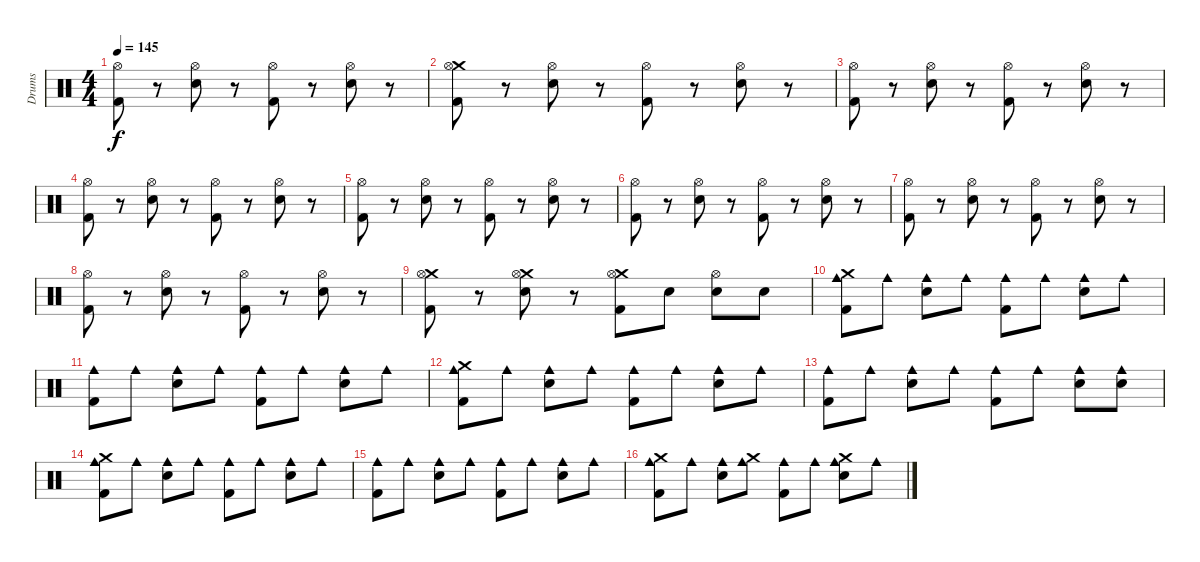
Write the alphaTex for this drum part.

\track ("Drums" "Drums") {instrument percussion}
\staff {score}
\articulation defaults
\ts (4 4)
\tempo 145
\clef neutral
\ks c
("Hi-Hat (open)" "Kick (hit) 2").8{dy f} r.8 ("Hi-Hat (open)" "Electric Snare (hit)").8 r.8 ("Hi-Hat (open)" "Kick (hit) 2").8 r.8 ("Hi-Hat (open)" "Electric Snare (hit)").8 r.8 |
("Crash medium (hit)" "Hi-Hat (open)" "Kick (hit) 2").8 r.8 ("Hi-Hat (open)" "Electric Snare (hit)").8 r.8 ("Hi-Hat (open)" "Kick (hit) 2").8 r.8 ("Hi-Hat (open)" "Electric Snare (hit)").8 r.8 |
("Hi-Hat (open)" "Kick (hit) 2").8 r.8 ("Hi-Hat (open)" "Electric Snare (hit)").8 r.8 ("Hi-Hat (open)" "Kick (hit) 2").8 r.8 ("Hi-Hat (open)" "Electric Snare (hit)").8 r.8 |
("Hi-Hat (open)" "Kick (hit) 2").8 r.8 ("Hi-Hat (open)" "Electric Snare (hit)").8 r.8 ("Hi-Hat (open)" "Kick (hit) 2").8 r.8 ("Hi-Hat (open)" "Electric Snare (hit)").8 r.8 |
("Hi-Hat (open)" "Kick (hit) 2").8 r.8 ("Hi-Hat (open)" "Electric Snare (hit)").8 r.8 ("Hi-Hat (open)" "Kick (hit) 2").8 r.8 ("Hi-Hat (open)" "Electric Snare (hit)").8 r.8 |
("Hi-Hat (open)" "Kick (hit) 2").8 r.8 ("Hi-Hat (open)" "Electric Snare (hit)").8 r.8 ("Hi-Hat (open)" "Kick (hit) 2").8 r.8 ("Hi-Hat (open)" "Electric Snare (hit)").8 r.8 |
("Hi-Hat (open)" "Kick (hit) 2").8 r.8 ("Hi-Hat (open)" "Electric Snare (hit)").8 r.8 ("Hi-Hat (open)" "Kick (hit) 2").8 r.8 ("Hi-Hat (open)" "Electric Snare (hit)").8 r.8 |
("Hi-Hat (open)" "Kick (hit) 2").8 r.8 ("Hi-Hat (open)" "Electric Snare (hit)").8 r.8 ("Hi-Hat (open)" "Kick (hit) 2").8 r.8 ("Hi-Hat (open)" "Electric Snare (hit)").8 r.8 |
("Crash medium (hit)" "Hi-Hat (open)" "Kick (hit) 2").8 r.8 ("Crash medium (hit)" "Hi-Hat (open)" "Electric Snare (hit)").8 r.8 ("Crash medium (hit)" "Hi-Hat (open)" "Kick (hit) 2").8 "Electric Snare (hit)".8 ("Hi-Hat (open)" "Electric Snare (hit)").8 "Electric Snare (hit)".8 |
("Crash medium (hit)" "Cowbell medium (hit)" "Kick (hit) 2").8 "Cowbell medium (hit)".8 ("Cowbell medium (hit)" "Electric Snare (hit)").8 "Cowbell medium (hit)".8 ("Cowbell medium (hit)" "Kick (hit) 2").8 "Cowbell medium (hit)".8 ("Cowbell medium (hit)" "Electric Snare (hit)").8 "Cowbell medium (hit)".8 |
("Cowbell medium (hit)" "Kick (hit) 2").8 "Cowbell medium (hit)".8 ("Cowbell medium (hit)" "Electric Snare (hit)").8 "Cowbell medium (hit)".8 ("Cowbell medium (hit)" "Kick (hit) 2").8 "Cowbell medium (hit)".8 ("Cowbell medium (hit)" "Electric Snare (hit)").8 "Cowbell medium (hit)".8 |
("Crash medium (hit)" "Cowbell medium (hit)" "Kick (hit) 2").8 "Cowbell medium (hit)".8 ("Cowbell medium (hit)" "Electric Snare (hit)").8 "Cowbell medium (hit)".8 ("Cowbell medium (hit)" "Kick (hit) 2").8 "Cowbell medium (hit)".8 ("Cowbell medium (hit)" "Electric Snare (hit)").8 "Cowbell medium (hit)".8 |
("Cowbell medium (hit)" "Kick (hit) 2").8 "Cowbell medium (hit)".8 ("Cowbell medium (hit)" "Electric Snare (hit)").8 "Cowbell medium (hit)".8 ("Cowbell medium (hit)" "Kick (hit) 2").8 "Cowbell medium (hit)".8 ("Cowbell medium (hit)" "Electric Snare (hit)").8 ("Cowbell medium (hit)" "Electric Snare (hit)").8 |
("Crash medium (hit)" "Cowbell medium (hit)" "Kick (hit) 2").8 "Cowbell medium (hit)".8 ("Cowbell medium (hit)" "Electric Snare (hit)").8 "Cowbell medium (hit)".8 ("Cowbell medium (hit)" "Kick (hit) 2").8 "Cowbell medium (hit)".8 ("Cowbell medium (hit)" "Electric Snare (hit)").8 "Cowbell medium (hit)".8 |
("Cowbell medium (hit)" "Kick (hit) 2").8 "Cowbell medium (hit)".8 ("Cowbell medium (hit)" "Electric Snare (hit)").8 "Cowbell medium (hit)".8 ("Cowbell medium (hit)" "Kick (hit) 2").8 "Cowbell medium (hit)".8 ("Cowbell medium (hit)" "Electric Snare (hit)").8 "Cowbell medium (hit)".8 |
("Crash medium (hit)" "Cowbell medium (hit)" "Kick (hit) 2").8 "Cowbell medium (hit)".8 ("Cowbell medium (hit)" "Electric Snare (hit)").8 ("Crash medium (hit)" "Cowbell medium (hit)").8 ("Cowbell medium (hit)" "Kick (hit) 2").8 "Cowbell medium (hit)".8 ("Crash medium (hit)" "Cowbell medium (hit)" "Electric Snare (hit)").8 "Cowbell medium (hit)".8
